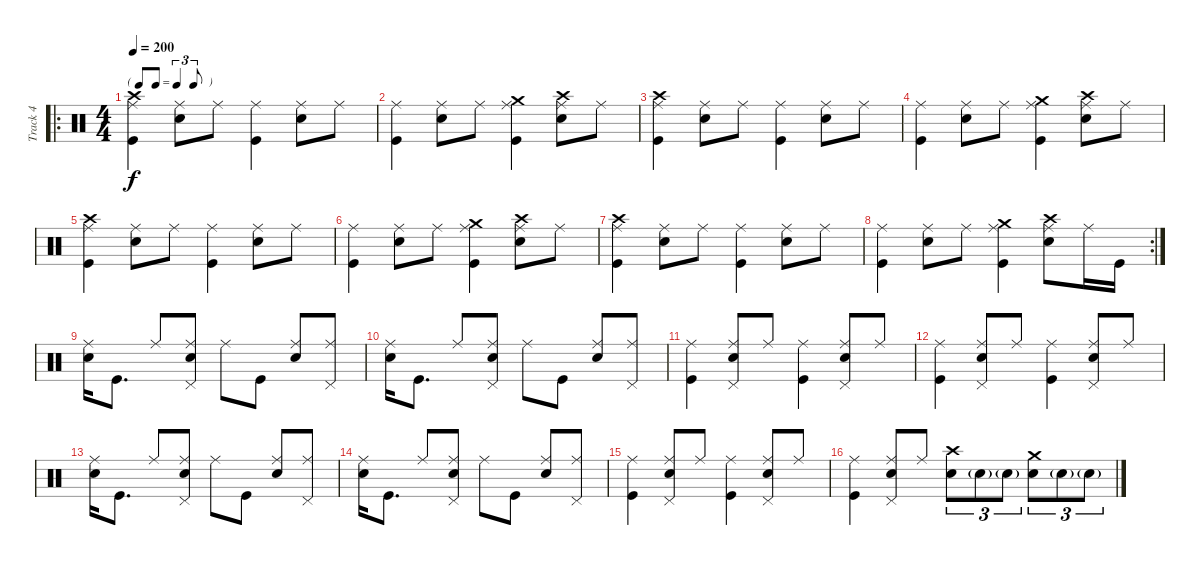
\track ("Track 4" "Track 4") {instrument percussion}
\staff {score}
\articulation defaults
\ro
\ts (4 4)
\tf triplet8th
\tempo 200
\clef neutral
\ks c
("Crash high (hit)" "Ride (middle)" "Kick (hit)").4{dy f} ("Ride (middle)" "Electric Snare (hit)").8 "Ride (middle)".8 ("Ride (middle)" "Kick (hit)").4 ("Ride (middle)" "Electric Snare (hit)").8 "Ride (middle)".8 |
("Ride (middle)" "Kick (hit)").4 ("Ride (middle)" "Electric Snare (hit)").8 "Ride (middle)".8 ("Crash medium (hit)" "Ride (middle)" "Kick (hit)").4 ("Crash high (hit)" "Ride (middle)" "Electric Snare (hit)").8 "Ride (middle)".8 |
("Crash high (hit)" "Ride (middle)" "Kick (hit)").4 ("Ride (middle)" "Electric Snare (hit)").8 "Ride (middle)".8 ("Ride (middle)" "Kick (hit)").4 ("Ride (middle)" "Electric Snare (hit)").8 "Ride (middle)".8 |
("Ride (middle)" "Kick (hit)").4 ("Ride (middle)" "Electric Snare (hit)").8 "Ride (middle)".8 ("Crash medium (hit)" "Ride (middle)" "Kick (hit)").4 ("Crash high (hit)" "Ride (middle)" "Electric Snare (hit)").8 "Ride (middle)".8 |
("Crash high (hit)" "Ride (middle)" "Kick (hit)").4 ("Ride (middle)" "Electric Snare (hit)").8 "Ride (middle)".8 ("Ride (middle)" "Kick (hit)").4 ("Ride (middle)" "Electric Snare (hit)").8 "Ride (middle)".8 |
("Ride (middle)" "Kick (hit)").4 ("Ride (middle)" "Electric Snare (hit)").8 "Ride (middle)".8 ("Crash medium (hit)" "Ride (middle)" "Kick (hit)").4 ("Crash high (hit)" "Ride (middle)" "Electric Snare (hit)").8 "Ride (middle)".8 |
("Crash high (hit)" "Ride (middle)" "Kick (hit)").4 ("Ride (middle)" "Electric Snare (hit)").8 "Ride (middle)".8 ("Ride (middle)" "Kick (hit)").4 ("Ride (middle)" "Electric Snare (hit)").8 "Ride (middle)".8 |
\rc 2
("Ride (middle)" "Kick (hit)").4 ("Ride (middle)" "Electric Snare (hit)").8 "Ride (middle)".8 ("Crash medium (hit)" "Ride (middle)" "Kick (hit)").4 ("Crash high (hit)" "Ride (middle)" "Electric Snare (hit)").8 "Ride (middle)".16 "Kick (hit)".16 |
("Ride (middle)" "Electric Snare (hit)").16 "Kick (hit)".8{d} "Ride (middle)".8 ("Ride (middle)" "Pedal Hi-Hat (hit)" "Electric Snare (hit)").8 "Ride (middle)".8 "Kick (hit)".8 ("Ride (middle)" "Electric Snare (hit)").8 ("Ride (middle)" "Pedal Hi-Hat (hit)").8 |
("Ride (middle)" "Electric Snare (hit)").16 "Kick (hit)".8{d} "Ride (middle)".8 ("Ride (middle)" "Pedal Hi-Hat (hit)" "Electric Snare (hit)").8 "Ride (middle)".8 "Kick (hit)".8 ("Ride (middle)" "Electric Snare (hit)").8 ("Ride (middle)" "Pedal Hi-Hat (hit)").8 |
("Ride (middle)" "Kick (hit)").4 ("Ride (middle)" "Pedal Hi-Hat (hit)" "Electric Snare (hit)").8 "Ride (middle)".8 ("Ride (middle)" "Kick (hit)").4 ("Ride (middle)" "Pedal Hi-Hat (hit)" "Electric Snare (hit)").8 "Ride (middle)".8 |
("Ride (middle)" "Kick (hit)").4 ("Ride (middle)" "Pedal Hi-Hat (hit)" "Electric Snare (hit)").8 "Ride (middle)".8 ("Ride (middle)" "Kick (hit)").4 ("Ride (middle)" "Pedal Hi-Hat (hit)" "Electric Snare (hit)").8 "Ride (middle)".8 |
("Ride (middle)" "Electric Snare (hit)").16 "Kick (hit)".8{d} "Ride (middle)".8 ("Ride (middle)" "Pedal Hi-Hat (hit)" "Electric Snare (hit)").8 "Ride (middle)".8 "Kick (hit)".8 ("Ride (middle)" "Electric Snare (hit)").8 ("Ride (middle)" "Pedal Hi-Hat (hit)").8 |
("Ride (middle)" "Electric Snare (hit)").16 "Kick (hit)".8{d} "Ride (middle)".8 ("Ride (middle)" "Pedal Hi-Hat (hit)" "Electric Snare (hit)").8 "Ride (middle)".8 "Kick (hit)".8 ("Ride (middle)" "Electric Snare (hit)").8 ("Ride (middle)" "Pedal Hi-Hat (hit)").8 |
("Ride (middle)" "Kick (hit)").4 ("Ride (middle)" "Pedal Hi-Hat (hit)" "Electric Snare (hit)").8 "Ride (middle)".8 ("Ride (middle)" "Kick (hit)").4 ("Ride (middle)" "Pedal Hi-Hat (hit)" "Electric Snare (hit)").8 "Ride (middle)".8 |
("Ride (middle)" "Kick (hit)").4 ("Ride (middle)" "Pedal Hi-Hat (hit)" "Electric Snare (hit)").8 "Ride (middle)".8 ("Crash high (hit)" "Electric Snare (hit)").8{tu (3 2)} "Electric Snare (hit)"{g}.8{tu (3 2)} "Electric Snare (hit)"{g}.8{tu (3 2)} ("Crash medium (hit)" "Electric Snare (hit)").8{tu (3 2)} "Electric Snare (hit)"{g}.8{tu (3 2)} "Electric Snare (hit)"{g}.8{tu (3 2)}
